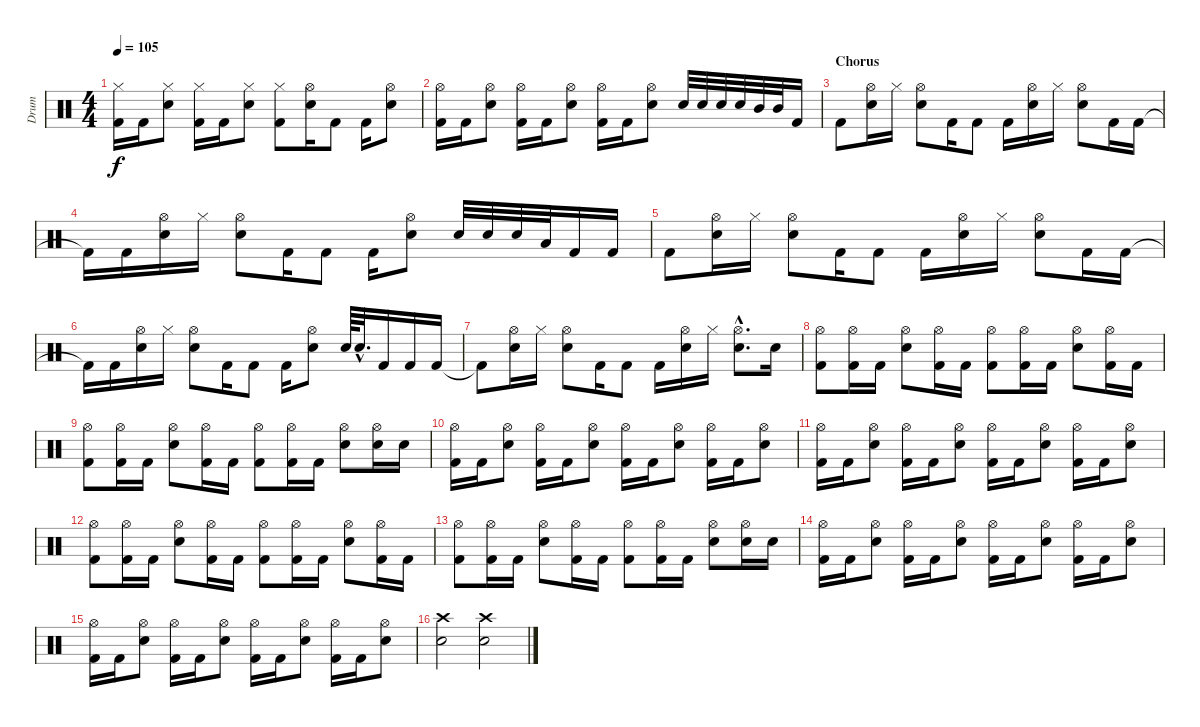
\track ("Drum" "Drum") {instrument percussion}
\staff {score}
\articulation defaults
\ts (4 4)
\tempo 105
\clef neutral
\ks c
("Hi-Hat (closed)" "Kick (hit) 2").16{dy f} "Kick (hit) 2".16 ("Hi-Hat (closed)" "Electric Snare (hit)").8 ("Hi-Hat (closed)" "Kick (hit) 2").16 "Kick (hit) 2".16 ("Hi-Hat (closed)" "Electric Snare (hit)").8 ("Hi-Hat (closed)" "Kick (hit) 2").8 ("Hi-Hat (open)" "Electric Snare (hit)").16 "Kick (hit) 2".8 "Kick (hit) 2".16 ("Hi-Hat (open)" "Electric Snare (hit)").8 |
("Hi-Hat (open)" "Kick (hit) 2").16 "Kick (hit) 2".16 ("Hi-Hat (open)" "Electric Snare (hit)").8 ("Hi-Hat (open)" "Kick (hit) 2").16 "Kick (hit) 2".16 ("Hi-Hat (open)" "Electric Snare (hit)").8 ("Hi-Hat (open)" "Kick (hit) 2").16 "Kick (hit) 2".16 ("Hi-Hat (open)" "Electric Snare (hit)").8 "Electric Snare (hit)".32 "Electric Snare (hit)".32 "Electric Snare (hit)".32 "Electric Snare (hit)".32 "Mid Tom (hit)".32 "Mid Tom (hit)".32 "Kick (hit) 2".16 |
\section ("" "Chorus")
"Kick (hit) 2".8 ("Hi-Hat (open)" "Electric Snare (hit)").16 "Hi-Hat (closed)".16 ("Hi-Hat (open)" "Electric Snare (hit)").8 "Kick (hit) 2".16 "Kick (hit) 2".8 "Kick (hit) 2".16 ("Hi-Hat (open)" "Electric Snare (hit)").16 "Hi-Hat (closed)".16 ("Hi-Hat (open)" "Electric Snare (hit)").8 "Kick (hit) 2".16 "Kick (hit) 2".16 |
"Kick (hit) 2"{t}.16 "Kick (hit) 2".16 ("Hi-Hat (open)" "Electric Snare (hit)").16 "Hi-Hat (closed)".16 ("Hi-Hat (open)" "Electric Snare (hit)").8 "Kick (hit) 2".16 "Kick (hit) 2".8 "Kick (hit) 2".16 ("Hi-Hat (open)" "Electric Snare (hit)").8 "Electric Snare (hit)".32 "Electric Snare (hit)".32 "Electric Snare (hit)".32 "Low Tom (hit)".32 "Kick (hit) 2".16 "Kick (hit) 2".16 |
"Kick (hit) 2".8 ("Hi-Hat (open)" "Electric Snare (hit)").16 "Hi-Hat (closed)".16 ("Hi-Hat (open)" "Electric Snare (hit)").8 "Kick (hit) 2".16 "Kick (hit) 2".8 "Kick (hit) 2".16 ("Hi-Hat (open)" "Electric Snare (hit)").16 "Hi-Hat (closed)".16 ("Hi-Hat (open)" "Electric Snare (hit)").8 "Kick (hit) 2".16 "Kick (hit) 2".16 |
"Kick (hit) 2"{t}.16 "Kick (hit) 2".16 ("Hi-Hat (open)" "Electric Snare (hit)").16 "Hi-Hat (closed)".16 ("Hi-Hat (open)" "Electric Snare (hit)").8 "Kick (hit) 2".16 "Kick (hit) 2".8 "Kick (hit) 2".16 ("Hi-Hat (open)" "Electric Snare (hit)").8 "Electric Snare (hit)".64 "Electric Snare (hit)"{hac}.32{d} "Kick (hit) 2".16 "Kick (hit) 2".16 "Kick (hit) 2".16 |
"Kick (hit) 2"{t}.8 ("Hi-Hat (open)" "Electric Snare (hit)").16 "Hi-Hat (closed)".16 ("Hi-Hat (open)" "Electric Snare (hit)").8 "Kick (hit) 2".16 "Kick (hit) 2".8 "Kick (hit) 2".16 ("Hi-Hat (open)" "Electric Snare (hit)").16 "Hi-Hat (closed)".16 ("Hi-Hat (open)"{hac} "Electric Snare (hit)"{hac}).8{d} "Electric Snare (hit)".16 |
("Hi-Hat (open)" "Kick (hit) 2").8 ("Hi-Hat (open)" "Kick (hit) 2").16 "Kick (hit) 2".16 ("Hi-Hat (open)" "Electric Snare (hit)").8 ("Hi-Hat (open)" "Kick (hit) 2").16 "Kick (hit) 2".16 ("Hi-Hat (open)" "Kick (hit) 2").8 ("Hi-Hat (open)" "Kick (hit) 2").16 "Kick (hit) 2".16 ("Hi-Hat (open)" "Electric Snare (hit)").8 ("Hi-Hat (open)" "Kick (hit) 2").16 "Kick (hit) 2".16 |
("Hi-Hat (open)" "Kick (hit) 2").8 ("Hi-Hat (open)" "Kick (hit) 2").16 "Kick (hit) 2".16 ("Hi-Hat (open)" "Electric Snare (hit)").8 ("Hi-Hat (open)" "Kick (hit) 2").16 "Kick (hit) 2".16 ("Hi-Hat (open)" "Kick (hit) 2").8 ("Hi-Hat (open)" "Kick (hit) 2").16 "Kick (hit) 2".16 ("Hi-Hat (open)" "Electric Snare (hit)").8 ("Hi-Hat (open)" "Electric Snare (hit)").16 "Electric Snare (hit)".16 |
("Hi-Hat (open)" "Kick (hit) 2").16 "Kick (hit) 2".16 ("Hi-Hat (open)" "Electric Snare (hit)").8 ("Hi-Hat (open)" "Kick (hit) 2").16 "Kick (hit) 2".16 ("Hi-Hat (open)" "Electric Snare (hit)").8 ("Hi-Hat (open)" "Kick (hit) 2").16 "Kick (hit) 2".16 ("Hi-Hat (open)" "Electric Snare (hit)").8 ("Hi-Hat (open)" "Kick (hit) 2").16 "Kick (hit) 2".16 ("Hi-Hat (open)" "Electric Snare (hit)").8 |
("Hi-Hat (open)" "Kick (hit) 2").16 "Kick (hit) 2".16 ("Hi-Hat (open)" "Electric Snare (hit)").8 ("Hi-Hat (open)" "Kick (hit) 2").16 "Kick (hit) 2".16 ("Hi-Hat (open)" "Electric Snare (hit)").8 ("Hi-Hat (open)" "Kick (hit) 2").16 "Kick (hit) 2".16 ("Hi-Hat (open)" "Electric Snare (hit)").8 ("Hi-Hat (open)" "Kick (hit) 2").16 "Kick (hit) 2".16 ("Hi-Hat (open)" "Electric Snare (hit)").8 |
("Hi-Hat (open)" "Kick (hit) 2").8 ("Hi-Hat (open)" "Kick (hit) 2").16 "Kick (hit) 2".16 ("Hi-Hat (open)" "Electric Snare (hit)").8 ("Hi-Hat (open)" "Kick (hit) 2").16 "Kick (hit) 2".16 ("Hi-Hat (open)" "Kick (hit) 2").8 ("Hi-Hat (open)" "Kick (hit) 2").16 "Kick (hit) 2".16 ("Hi-Hat (open)" "Electric Snare (hit)").8 ("Hi-Hat (open)" "Kick (hit) 2").16 "Kick (hit) 2".16 |
("Hi-Hat (open)" "Kick (hit) 2").8 ("Hi-Hat (open)" "Kick (hit) 2").16 "Kick (hit) 2".16 ("Hi-Hat (open)" "Electric Snare (hit)").8 ("Hi-Hat (open)" "Kick (hit) 2").16 "Kick (hit) 2".16 ("Hi-Hat (open)" "Kick (hit) 2").8 ("Hi-Hat (open)" "Kick (hit) 2").16 "Kick (hit) 2".16 ("Hi-Hat (open)" "Electric Snare (hit)").8 ("Hi-Hat (open)" "Electric Snare (hit)").16 "Electric Snare (hit)".16 |
("Hi-Hat (open)" "Kick (hit) 2").16 "Kick (hit) 2".16 ("Hi-Hat (open)" "Electric Snare (hit)").8 ("Hi-Hat (open)" "Kick (hit) 2").16 "Kick (hit) 2".16 ("Hi-Hat (open)" "Electric Snare (hit)").8 ("Hi-Hat (open)" "Kick (hit) 2").16 "Kick (hit) 2".16 ("Hi-Hat (open)" "Electric Snare (hit)").8 ("Hi-Hat (open)" "Kick (hit) 2").16 "Kick (hit) 2".16 ("Hi-Hat (open)" "Electric Snare (hit)").8 |
("Hi-Hat (open)" "Kick (hit) 2").16 "Kick (hit) 2".16 ("Hi-Hat (open)" "Electric Snare (hit)").8 ("Hi-Hat (open)" "Kick (hit) 2").16 "Kick (hit) 2".16 ("Hi-Hat (open)" "Electric Snare (hit)").8 ("Hi-Hat (open)" "Kick (hit) 2").16 "Kick (hit) 2".16 ("Hi-Hat (open)" "Electric Snare (hit)").8 ("Hi-Hat (open)" "Kick (hit) 2").16 "Kick (hit) 2".16 ("Hi-Hat (open)" "Electric Snare (hit)").8 |
("Crash high (hit)" "Electric Snare (hit)").2 ("Crash high (hit)" "Electric Snare (hit)").2
